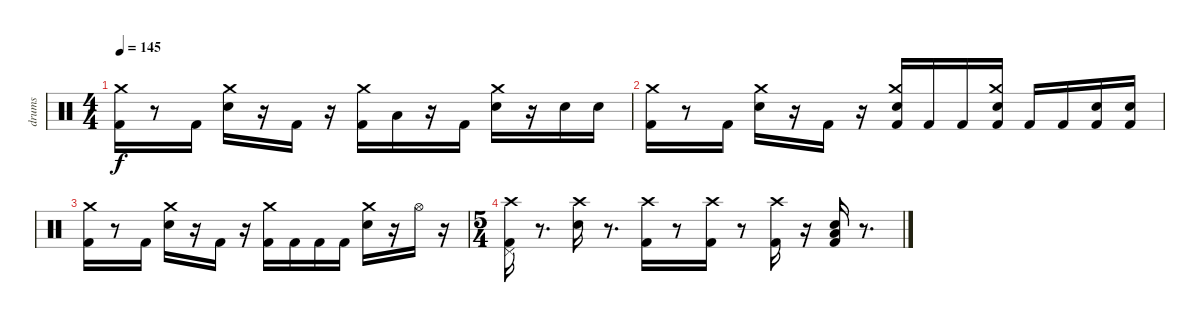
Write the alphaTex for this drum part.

\track ("drums" "drums") {instrument percussion}
\staff {score}
\articulation defaults
\ts (4 4)
\tempo 145
\clef neutral
\ks c
("Kick (hit) 2" "Crash medium (hit)").16{dy f} r.8 "Kick (hit) 2".16 ("Snare (hit) 2" "Crash medium (hit)").16 r.16 "Kick (hit) 2".16 r.16 ("Kick (hit) 2" "Crash medium (hit)").16 "Low Tom (hit)".16 r.16 "Kick (hit) 2".16 ("Snare (hit) 2" "Crash medium (hit)").16 r.16 "Snare (hit) 2".16 "Snare (hit) 2".16 |
("Kick (hit) 2" "Crash medium (hit)").16 r.8 "Kick (hit) 2".16 ("Snare (hit) 2" "Crash medium (hit)").16 r.16 "Kick (hit) 2".16 r.16 ("Kick (hit) 2" "Snare (hit) 2" "Crash medium (hit)").16 "Kick (hit) 2".16 "Kick (hit) 2".16 ("Kick (hit) 2" "Snare (hit) 2" "Crash medium (hit)").16 "Kick (hit) 2".16 "Kick (hit) 2".16 ("Kick (hit) 2" "Snare (hit) 2").16 ("Kick (hit) 2" "Snare (hit) 2").16 |
("Kick (hit) 2" "Crash medium (hit)").16 r.8 "Kick (hit) 2".16 ("Snare (hit) 2" "Crash medium (hit)").16 r.16 "Kick (hit) 2".16 r.16 ("Kick (hit) 2" "Crash medium (hit)").16 "Kick (hit) 2".16 "Kick (hit) 2".16 "Kick (hit) 2".16 ("Snare (hit) 2" "Crash medium (hit)").16 r.16 "Hi-Hat (open)".16 r.16 |
\ts (5 4)
("Kick (hit) 2" "Pedal Hi-Hat (hit)" "Crash high (hit)").16 r.8{d} ("Snare (hit) 2" "Crash high (hit)").16 r.8{d} ("Kick (hit) 2" "Crash high (hit)").16 r.8 ("Kick (hit) 2" "Crash high (hit)").16 r.8 ("Kick (hit) 2" "Crash high (hit)").16 r.16 ("Kick (hit) 2" "Snare (hit) 2" "Low Tom (hit)").16 r.8{d}
